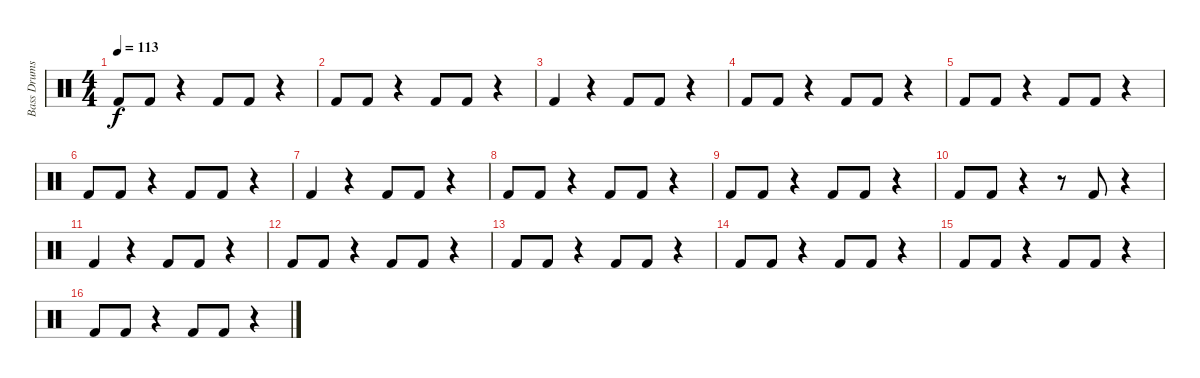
\track ("Bass Drums" "Bass Drums") {instrument percussion}
\staff {score}
\articulation defaults
\ts (4 4)
\tempo 113
\clef neutral
\ks c "Kick (hit) 2".8{dy f} "Kick (hit) 2".8
r.4 "Kick (hit) 2".8 "Kick (hit) 2".8 r.4 |
"Kick (hit) 2".8 "Kick (hit) 2".8 r.4 "Kick (hit) 2".8 "Kick (hit) 2".8 r.4 |
"Kick (hit) 2".4 r.4 "Kick (hit) 2".8 "Kick (hit) 2".8 r.4 |
"Kick (hit) 2".8 "Kick (hit) 2".8 r.4 "Kick (hit) 2".8 "Kick (hit) 2".8 r.4 |
"Kick (hit) 2".8 "Kick (hit) 2".8 r.4 "Kick (hit) 2".8 "Kick (hit) 2".8 r.4 |
"Kick (hit) 2".8 "Kick (hit) 2".8 r.4 "Kick (hit) 2".8 "Kick (hit) 2".8 r.4 |
"Kick (hit) 2".4 r.4 "Kick (hit) 2".8 "Kick (hit) 2".8 r.4 |
"Kick (hit) 2".8 "Kick (hit) 2".8 r.4 "Kick (hit) 2".8 "Kick (hit) 2".8 r.4 |
"Kick (hit) 2".8 "Kick (hit) 2".8 r.4 "Kick (hit) 2".8 "Kick (hit) 2".8 r.4 |
"Kick (hit) 2".8 "Kick (hit) 2".8 r.4 r.8 "Kick (hit) 2".8 r.4 |
"Kick (hit) 2".4 r.4 "Kick (hit) 2".8 "Kick (hit) 2".8 r.4 |
"Kick (hit) 2".8 "Kick (hit) 2".8 r.4 "Kick (hit) 2".8 "Kick (hit) 2".8 r.4 |
"Kick (hit) 2".8 "Kick (hit) 2".8 r.4 "Kick (hit) 2".8 "Kick (hit) 2".8 r.4 |
"Kick (hit) 2".8 "Kick (hit) 2".8 r.4 "Kick (hit) 2".8 "Kick (hit) 2".8 r.4 |
"Kick (hit) 2".8 "Kick (hit) 2".8 r.4 "Kick (hit) 2".8 "Kick (hit) 2".8 r.4 |
"Kick (hit) 2".8 "Kick (hit) 2".8 r.4 "Kick (hit) 2".8 "Kick (hit) 2".8 r.4
